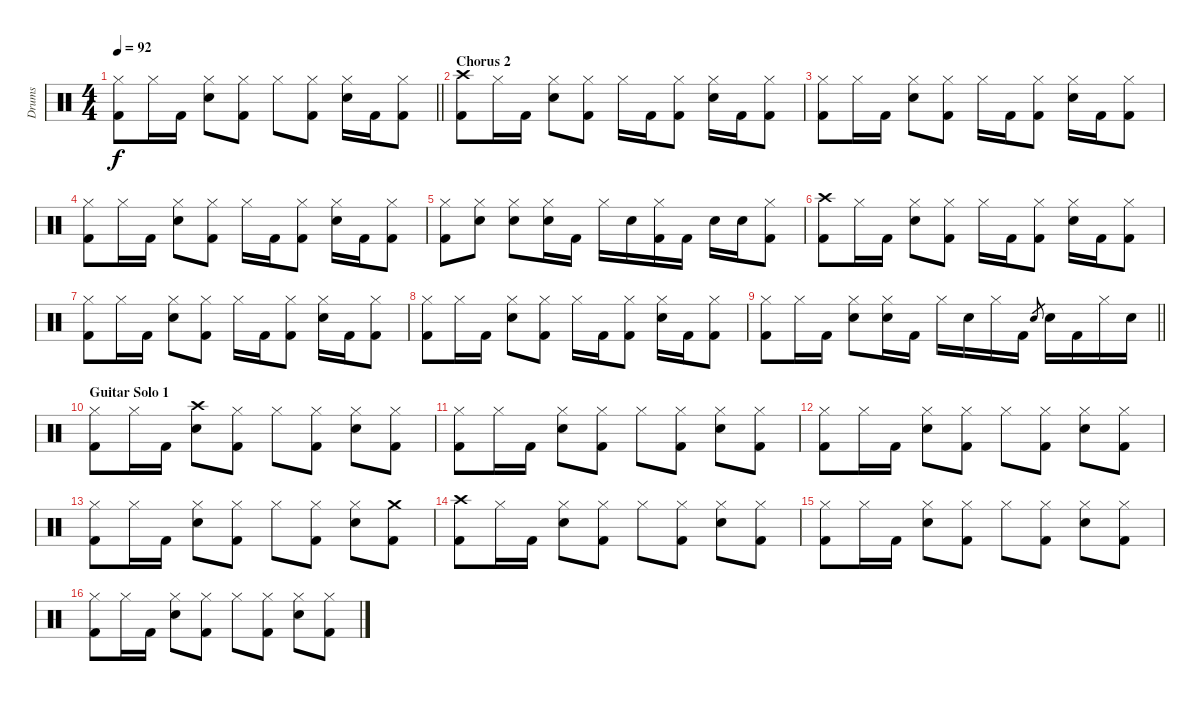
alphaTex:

\track ("Drums" "Drums") {instrument percussion}
\staff {score}
\articulation defaults
\ts (4 4)
\tempo 92
\clef neutral
\barLineRight lightlight
\ks c
("Hi-Hat (closed)" "Kick (hit) 2").8{dy f} "Hi-Hat (closed)".16 "Kick (hit) 2".16 ("Hi-Hat (closed)" "Electric Snare (hit)").8 ("Hi-Hat (closed)" "Kick (hit) 2").8 "Hi-Hat (closed)".8 ("Hi-Hat (closed)" "Kick (hit) 2").8 ("Hi-Hat (closed)" "Electric Snare (hit)").16 "Kick (hit) 2".16 ("Hi-Hat (closed)" "Kick (hit) 2").8 |
\section ("" "Chorus 2")
("Crash high (hit)" "Kick (hit) 2").8 "Hi-Hat (closed)".16 "Kick (hit) 2".16 ("Hi-Hat (closed)" "Electric Snare (hit)").8 ("Hi-Hat (closed)" "Kick (hit) 2").8 "Hi-Hat (closed)".16 "Kick (hit) 2".16 ("Hi-Hat (closed)" "Kick (hit) 2").8 ("Hi-Hat (closed)" "Electric Snare (hit)").16 "Kick (hit) 2".16 ("Hi-Hat (closed)" "Kick (hit) 2").8 |
("Hi-Hat (closed)" "Kick (hit) 2").8 "Hi-Hat (closed)".16 "Kick (hit) 2".16 ("Hi-Hat (closed)" "Electric Snare (hit)").8 ("Hi-Hat (closed)" "Kick (hit) 2").8 "Hi-Hat (closed)".16 "Kick (hit) 2".16 ("Hi-Hat (closed)" "Kick (hit) 2").8 ("Hi-Hat (closed)" "Electric Snare (hit)").16 "Kick (hit) 2".16 ("Hi-Hat (closed)" "Kick (hit) 2").8 |
("Hi-Hat (closed)" "Kick (hit) 2").8 "Hi-Hat (closed)".16 "Kick (hit) 2".16 ("Hi-Hat (closed)" "Electric Snare (hit)").8 ("Hi-Hat (closed)" "Kick (hit) 2").8 "Hi-Hat (closed)".16 "Kick (hit) 2".16 ("Hi-Hat (closed)" "Kick (hit) 2").8 ("Hi-Hat (closed)" "Electric Snare (hit)").16 "Kick (hit) 2".16 ("Hi-Hat (closed)" "Kick (hit) 2").8 |
("Hi-Hat (closed)" "Kick (hit) 2").8 ("Hi-Hat (closed)" "Electric Snare (hit)").8 ("Hi-Hat (closed)" "Electric Snare (hit)").8 ("Hi-Hat (closed)" "Electric Snare (hit)").16 "Kick (hit) 2".16 "Hi-Hat (closed)".16 "Electric Snare (hit)".16 ("Hi-Hat (closed)" "Kick (hit) 2").16 "Kick (hit) 2".16 "Electric Snare (hit)".16 "Electric Snare (hit)".16 ("Hi-Hat (closed)" "Kick (hit) 2").8 |
("Crash high (hit)" "Kick (hit) 2").8 "Hi-Hat (closed)".16 "Kick (hit) 2".16 ("Hi-Hat (closed)" "Electric Snare (hit)").8 ("Hi-Hat (closed)" "Kick (hit) 2").8 "Hi-Hat (closed)".16 "Kick (hit) 2".16 ("Hi-Hat (closed)" "Kick (hit) 2").8 ("Hi-Hat (closed)" "Electric Snare (hit)").16 "Kick (hit) 2".16 ("Hi-Hat (closed)" "Kick (hit) 2").8 |
("Hi-Hat (closed)" "Kick (hit) 2").8 "Hi-Hat (closed)".16 "Kick (hit) 2".16 ("Hi-Hat (closed)" "Electric Snare (hit)").8 ("Hi-Hat (closed)" "Kick (hit) 2").8 "Hi-Hat (closed)".16 "Kick (hit) 2".16 ("Hi-Hat (closed)" "Kick (hit) 2").8 ("Hi-Hat (closed)" "Electric Snare (hit)").16 "Kick (hit) 2".16 ("Hi-Hat (closed)" "Kick (hit) 2").8 |
("Hi-Hat (closed)" "Kick (hit) 2").8 "Hi-Hat (closed)".16 "Kick (hit) 2".16 ("Hi-Hat (closed)" "Electric Snare (hit)").8 ("Hi-Hat (closed)" "Kick (hit) 2").8 "Hi-Hat (closed)".16 "Kick (hit) 2".16 ("Hi-Hat (closed)" "Kick (hit) 2").8 ("Hi-Hat (closed)" "Electric Snare (hit)").16 "Kick (hit) 2".16 ("Hi-Hat (closed)" "Kick (hit) 2").8 |
\barLineRight lightlight
("Hi-Hat (closed)" "Kick (hit) 2").8 "Hi-Hat (closed)".16 "Kick (hit) 2".16 ("Hi-Hat (closed)" "Electric Snare (hit)").8 ("Hi-Hat (closed)" "Electric Snare (hit)").16 "Kick (hit) 2".16 "Hi-Hat (closed)".16 "Electric Snare (hit)".16 "Hi-Hat (closed)".16 "Kick (hit) 2".16 "Electric Snare (hit)".8{gr} "Electric Snare (hit)".16 "Kick (hit) 2".16 "Hi-Hat (closed)".16 "Electric Snare (hit)".16 |
\section ("" "Guitar Solo 1")
("Hi-Hat (closed)" "Kick (hit) 2").8 "Hi-Hat (closed)".16 "Kick (hit) 2".16 ("Crash high (hit)" "Electric Snare (hit)").8 ("Hi-Hat (closed)" "Kick (hit) 2").8 "Hi-Hat (closed)".8 ("Hi-Hat (closed)" "Kick (hit) 2").8 ("Hi-Hat (closed)" "Electric Snare (hit)").8 ("Hi-Hat (closed)" "Kick (hit) 2").8 |
("Hi-Hat (closed)" "Kick (hit) 2").8 "Hi-Hat (closed)".16 "Kick (hit) 2".16 ("Hi-Hat (closed)" "Electric Snare (hit)").8 ("Hi-Hat (closed)" "Kick (hit) 2").8 "Hi-Hat (closed)".8 ("Hi-Hat (closed)" "Kick (hit) 2").8 ("Hi-Hat (closed)" "Electric Snare (hit)").8 ("Hi-Hat (closed)" "Kick (hit) 2").8 |
("Hi-Hat (closed)" "Kick (hit) 2").8 "Hi-Hat (closed)".16 "Kick (hit) 2".16 ("Hi-Hat (closed)" "Electric Snare (hit)").8 ("Hi-Hat (closed)" "Kick (hit) 2").8 "Hi-Hat (closed)".8 ("Hi-Hat (closed)" "Kick (hit) 2").8 ("Hi-Hat (closed)" "Electric Snare (hit)").8 ("Hi-Hat (closed)" "Kick (hit) 2").8 |
("Hi-Hat (closed)" "Kick (hit) 2").8 "Hi-Hat (closed)".16 "Kick (hit) 2".16 ("Hi-Hat (closed)" "Electric Snare (hit)").8 ("Hi-Hat (closed)" "Kick (hit) 2").8 "Hi-Hat (closed)".8 ("Hi-Hat (closed)" "Kick (hit) 2").8 ("Hi-Hat (closed)" "Electric Snare (hit)").8 ("Crash medium (hit)" "Kick (hit) 2").8 |
("Crash high (hit)" "Kick (hit) 2").8 "Hi-Hat (closed)".16 "Kick (hit) 2".16 ("Hi-Hat (closed)" "Electric Snare (hit)").8 ("Hi-Hat (closed)" "Kick (hit) 2").8 "Hi-Hat (closed)".8 ("Hi-Hat (closed)" "Kick (hit) 2").8 ("Hi-Hat (closed)" "Electric Snare (hit)").8 ("Hi-Hat (closed)" "Kick (hit) 2").8 |
("Hi-Hat (closed)" "Kick (hit) 2").8 "Hi-Hat (closed)".16 "Kick (hit) 2".16 ("Hi-Hat (closed)" "Electric Snare (hit)").8 ("Hi-Hat (closed)" "Kick (hit) 2").8 "Hi-Hat (closed)".8 ("Hi-Hat (closed)" "Kick (hit) 2").8 ("Hi-Hat (closed)" "Electric Snare (hit)").8 ("Hi-Hat (closed)" "Kick (hit) 2").8 |
("Hi-Hat (closed)" "Kick (hit) 2").8 "Hi-Hat (closed)".16 "Kick (hit) 2".16 ("Hi-Hat (closed)" "Electric Snare (hit)").8 ("Hi-Hat (closed)" "Kick (hit) 2").8 "Hi-Hat (closed)".8 ("Hi-Hat (closed)" "Kick (hit) 2").8 ("Hi-Hat (closed)" "Electric Snare (hit)").8 ("Hi-Hat (closed)" "Kick (hit) 2").8
